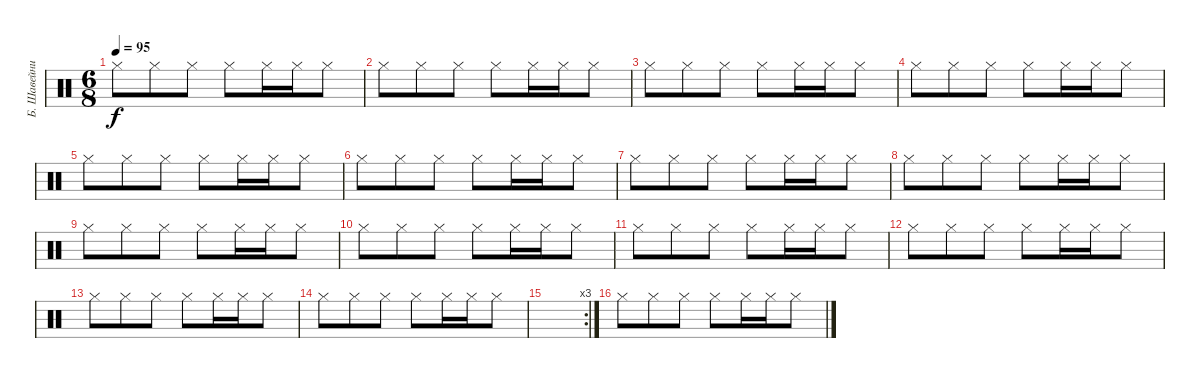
\track ("Б. Шавейников" "Б. Шавейни") {instrument percussion}
\staff {score}
\articulation defaults
\ts (6 8)
\tempo 95
\clef neutral
\ks c "Hi-Hat (closed)".8{dy f} "Hi-Hat (closed)".8 "Hi-Hat (closed)".8 "Hi-Hat (closed)".8 "Hi-Hat (closed)".16 "Hi-Hat (closed)".16 "Hi-Hat (closed)".8
|
"Hi-Hat (closed)".8 "Hi-Hat (closed)".8 "Hi-Hat (closed)".8 "Hi-Hat (closed)".8 "Hi-Hat (closed)".16 "Hi-Hat (closed)".16 "Hi-Hat (closed)".8 |
"Hi-Hat (closed)".8 "Hi-Hat (closed)".8 "Hi-Hat (closed)".8 "Hi-Hat (closed)".8 "Hi-Hat (closed)".16 "Hi-Hat (closed)".16 "Hi-Hat (closed)".8 |
"Hi-Hat (closed)".8 "Hi-Hat (closed)".8 "Hi-Hat (closed)".8 "Hi-Hat (closed)".8 "Hi-Hat (closed)".16 "Hi-Hat (closed)".16 "Hi-Hat (closed)".8 |
"Hi-Hat (closed)".8 "Hi-Hat (closed)".8 "Hi-Hat (closed)".8 "Hi-Hat (closed)".8 "Hi-Hat (closed)".16 "Hi-Hat (closed)".16 "Hi-Hat (closed)".8 |
"Hi-Hat (closed)".8 "Hi-Hat (closed)".8 "Hi-Hat (closed)".8 "Hi-Hat (closed)".8 "Hi-Hat (closed)".16 "Hi-Hat (closed)".16 "Hi-Hat (closed)".8 |
"Hi-Hat (closed)".8 "Hi-Hat (closed)".8 "Hi-Hat (closed)".8 "Hi-Hat (closed)".8 "Hi-Hat (closed)".16 "Hi-Hat (closed)".16 "Hi-Hat (closed)".8 |
"Hi-Hat (closed)".8 "Hi-Hat (closed)".8 "Hi-Hat (closed)".8 "Hi-Hat (closed)".8 "Hi-Hat (closed)".16 "Hi-Hat (closed)".16 "Hi-Hat (closed)".8 |
"Hi-Hat (closed)".8 "Hi-Hat (closed)".8 "Hi-Hat (closed)".8 "Hi-Hat (closed)".8 "Hi-Hat (closed)".16 "Hi-Hat (closed)".16 "Hi-Hat (closed)".8 |
"Hi-Hat (closed)".8 "Hi-Hat (closed)".8 "Hi-Hat (closed)".8 "Hi-Hat (closed)".8 "Hi-Hat (closed)".16 "Hi-Hat (closed)".16 "Hi-Hat (closed)".8 |
"Hi-Hat (closed)".8 "Hi-Hat (closed)".8 "Hi-Hat (closed)".8 "Hi-Hat (closed)".8 "Hi-Hat (closed)".16 "Hi-Hat (closed)".16 "Hi-Hat (closed)".8 |
"Hi-Hat (closed)".8 "Hi-Hat (closed)".8 "Hi-Hat (closed)".8 "Hi-Hat (closed)".8 "Hi-Hat (closed)".16 "Hi-Hat (closed)".16 "Hi-Hat (closed)".8 |
"Hi-Hat (closed)".8 "Hi-Hat (closed)".8 "Hi-Hat (closed)".8 "Hi-Hat (closed)".8 "Hi-Hat (closed)".16 "Hi-Hat (closed)".16 "Hi-Hat (closed)".8 |
"Hi-Hat (closed)".8 "Hi-Hat (closed)".8 "Hi-Hat (closed)".8 "Hi-Hat (closed)".8 "Hi-Hat (closed)".16 "Hi-Hat (closed)".16 "Hi-Hat (closed)".8 |
\rc 3
|
"Hi-Hat (closed)".8 "Hi-Hat (closed)".8 "Hi-Hat (closed)".8 "Hi-Hat (closed)".8 "Hi-Hat (closed)".16 "Hi-Hat (closed)".16 "Hi-Hat (closed)".8
